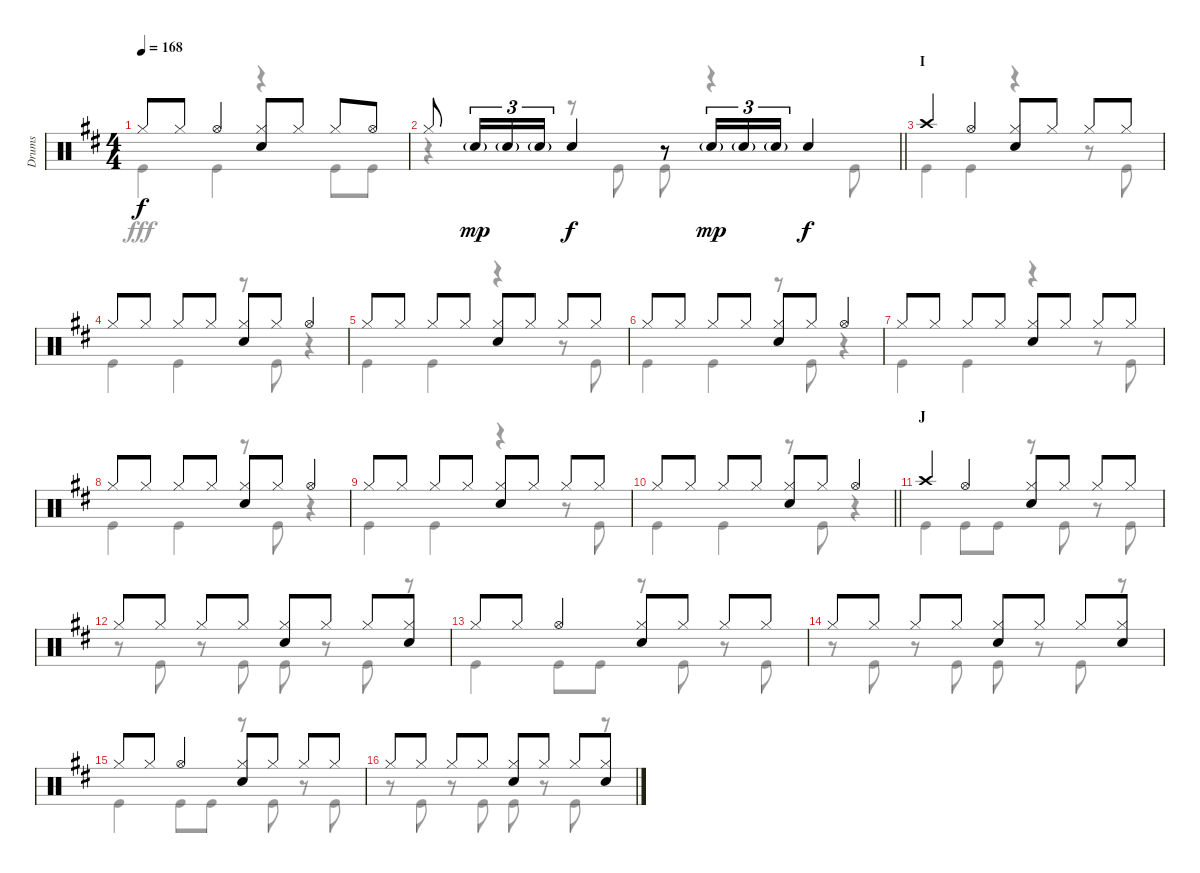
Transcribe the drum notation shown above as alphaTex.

\track ("Drums" "Drums") {instrument percussion}
\staff {score}
\articulation defaults
\voice
\ts (4 4)
\tempo 168
\clef neutral
\ks d "Hi-Hat (closed)".8{dy f} "Hi-Hat (closed)".8 "Hi-Hat (open)".4
("Hi-Hat (closed)" "Snare (hit) 2").8 "Hi-Hat (closed)".8 "Hi-Hat (closed)".8 "Hi-Hat (open)".8 |
\barLineRight lightlight "Hi-Hat (closed)".8 "Snare (hit) 2"{g}.16{tu (3 2) dy mp} "Snare (hit) 2"{g}.16{tu (3 2)} "Snare (hit) 2"{g}.16{tu (3 2)} "Snare (hit) 2".4{dy f}
r.8 "Snare (hit) 2"{g}.16{tu (3 2) dy mp} "Snare (hit) 2"{g}.16{tu (3 2)} "Snare (hit) 2"{g}.16{tu (3 2)} "Snare (hit) 2".4{dy f} |
\section ("" "I")
"Crash high (hit)".4 "Hi-Hat (open)".4 ("Hi-Hat (closed)" "Snare (hit) 2").8 "Hi-Hat (closed)".8 "Hi-Hat (closed)".8 "Hi-Hat (closed)".8 |
"Hi-Hat (closed)".8 "Hi-Hat (closed)".8 "Hi-Hat (closed)".8 "Hi-Hat (closed)".8 ("Hi-Hat (closed)" "Snare (hit) 2").8 "Hi-Hat (closed)".8 "Hi-Hat (open)".4 |
"Hi-Hat (closed)".8 "Hi-Hat (closed)".8 "Hi-Hat (closed)".8 "Hi-Hat (closed)".8 ("Hi-Hat (closed)" "Snare (hit) 2").8 "Hi-Hat (closed)".8 "Hi-Hat (closed)".8 "Hi-Hat (closed)".8 |
"Hi-Hat (closed)".8 "Hi-Hat (closed)".8 "Hi-Hat (closed)".8 "Hi-Hat (closed)".8 ("Hi-Hat (closed)" "Snare (hit) 2").8 "Hi-Hat (closed)".8 "Hi-Hat (open)".4 |
"Hi-Hat (closed)".8 "Hi-Hat (closed)".8 "Hi-Hat (closed)".8 "Hi-Hat (closed)".8 ("Hi-Hat (closed)" "Snare (hit) 2").8 "Hi-Hat (closed)".8 "Hi-Hat (closed)".8 "Hi-Hat (closed)".8 |
"Hi-Hat (closed)".8 "Hi-Hat (closed)".8 "Hi-Hat (closed)".8 "Hi-Hat (closed)".8 ("Hi-Hat (closed)" "Snare (hit) 2").8 "Hi-Hat (closed)".8 "Hi-Hat (open)".4 |
"Hi-Hat (closed)".8 "Hi-Hat (closed)".8 "Hi-Hat (closed)".8 "Hi-Hat (closed)".8 ("Hi-Hat (closed)" "Snare (hit) 2").8 "Hi-Hat (closed)".8 "Hi-Hat (closed)".8 "Hi-Hat (closed)".8 |
\barLineRight lightlight "Hi-Hat (closed)".8 "Hi-Hat (closed)".8 "Hi-Hat (closed)".8 "Hi-Hat (closed)".8
("Hi-Hat (closed)" "Snare (hit) 2").8 "Hi-Hat (closed)".8 "Hi-Hat (open)".4 |
\section ("" "J")
"Crash high (hit)".4 "Hi-Hat (open)".4 ("Hi-Hat (closed)" "Snare (hit) 2").8 "Hi-Hat (closed)".8 "Hi-Hat (closed)".8 "Hi-Hat (closed)".8 |
"Hi-Hat (closed)".8 "Hi-Hat (closed)".8 "Hi-Hat (closed)".8 "Hi-Hat (closed)".8 ("Hi-Hat (closed)" "Snare (hit) 2").8 "Hi-Hat (closed)".8 "Hi-Hat (closed)".8 ("Hi-Hat (closed)" "Snare (hit) 2").8 |
"Hi-Hat (closed)".8 "Hi-Hat (closed)".8 "Hi-Hat (open)".4 ("Hi-Hat (closed)" "Snare (hit) 2").8 "Hi-Hat (closed)".8 "Hi-Hat (closed)".8 "Hi-Hat (closed)".8 |
"Hi-Hat (closed)".8 "Hi-Hat (closed)".8 "Hi-Hat (closed)".8 "Hi-Hat (closed)".8 ("Hi-Hat (closed)" "Snare (hit) 2").8 "Hi-Hat (closed)".8 "Hi-Hat (closed)".8 ("Hi-Hat (closed)" "Snare (hit) 2").8 |
"Hi-Hat (closed)".8 "Hi-Hat (closed)".8 "Hi-Hat (open)".4 ("Hi-Hat (closed)" "Snare (hit) 2").8 "Hi-Hat (closed)".8 "Hi-Hat (closed)".8 "Hi-Hat (closed)".8 |
"Hi-Hat (closed)".8 "Hi-Hat (closed)".8 "Hi-Hat (closed)".8 "Hi-Hat (closed)".8 ("Hi-Hat (closed)" "Snare (hit) 2").8 "Hi-Hat (closed)".8 "Hi-Hat (closed)".8 ("Hi-Hat (closed)" "Snare (hit) 2").8
\voice
\clef neutral
\ottava regular
\simile none
\ks d "Kick (hit)".4{dy fff} "Kick (hit)".4
r.4 "Kick (hit)".8 "Kick (hit)".8 |
\barLineRight lightlight
r.4 r.8 "Kick (hit)".8 "Kick (hit)".8 r.4 "Kick (hit)".8 |
"Kick (hit)".4 "Kick (hit)".4 r.4 r.8 "Kick (hit)".8 |
"Kick (hit)".4 "Kick (hit)".4 r.8 "Kick (hit)".8 r.4 |
"Kick (hit)".4 "Kick (hit)".4 r.4 r.8 "Kick (hit)".8 |
"Kick (hit)".4 "Kick (hit)".4 r.8 "Kick (hit)".8 r.4 |
"Kick (hit)".4 "Kick (hit)".4 r.4 r.8 "Kick (hit)".8 |
"Kick (hit)".4 "Kick (hit)".4 r.8 "Kick (hit)".8 r.4 |
"Kick (hit)".4 "Kick (hit)".4 r.4 r.8 "Kick (hit)".8 |
\barLineRight lightlight "Kick (hit)".4 "Kick (hit)".4
r.8 "Kick (hit)".8 r.4 |
"Kick (hit)".4 "Kick (hit)".8 "Kick (hit)".8 r.8 "Kick (hit)".8 r.8 "Kick (hit)".8 |
r.8 "Kick (hit)".8 r.8 "Kick (hit)".8 "Kick (hit)".8 r.8 "Kick (hit)".8 r.8 |
"Kick (hit)".4 "Kick (hit)".8 "Kick (hit)".8 r.8 "Kick (hit)".8 r.8 "Kick (hit)".8 |
r.8 "Kick (hit)".8 r.8 "Kick (hit)".8 "Kick (hit)".8 r.8 "Kick (hit)".8 r.8 |
"Kick (hit)".4 "Kick (hit)".8 "Kick (hit)".8 r.8 "Kick (hit)".8 r.8 "Kick (hit)".8 |
r.8 "Kick (hit)".8 r.8 "Kick (hit)".8 "Kick (hit)".8 r.8 "Kick (hit)".8 r.8
